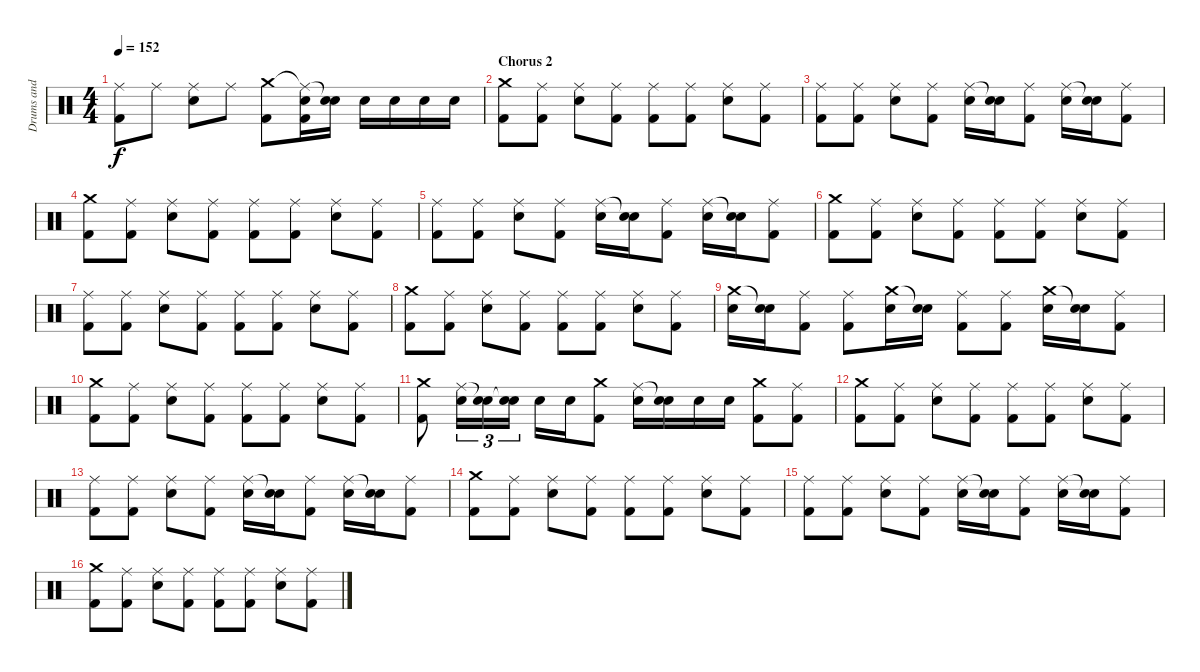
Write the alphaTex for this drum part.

\track ("Drums and Percussion" "Drums and ") {instrument percussion}
\staff {score}
\articulation defaults
\ts (4 4)
\tempo 152
\clef neutral
\ks c
("Ride (middle)" "Kick (hit) 2").8{dy f} "Ride (middle)".8 ("Ride (middle)" "Electric Snare (hit)").8 "Ride (middle)".8 ("Crash medium (hit)" "Kick (hit) 2").8 ("Ride (middle)"{t} "Electric Snare (hit)" "Kick (hit) 2").16 ("Snare (hit)"{t} "Electric Snare (hit)").16 "Electric Snare (hit)".16 "Electric Snare (hit)".16 "Electric Snare (hit)".16 "Electric Snare (hit)".16 |
\section ("" "Chorus 2")
("Crash medium (hit)" "Kick (hit) 2").8 ("Ride (middle)" "Kick (hit) 2").8 ("Ride (middle)" "Electric Snare (hit)").8 ("Ride (middle)" "Kick (hit) 2").8 ("Ride (middle)" "Kick (hit) 2").8 ("Ride (middle)" "Kick (hit) 2").8 ("Ride (middle)" "Electric Snare (hit)").8 ("Ride (middle)" "Kick (hit) 2").8 |
("Ride (middle)" "Kick (hit) 2").8 ("Ride (middle)" "Kick (hit) 2").8 ("Ride (middle)" "Electric Snare (hit)").8 ("Ride (middle)" "Kick (hit) 2").8 ("Ride (middle)" "Electric Snare (hit)").16 ("Snare (hit)"{t} "Electric Snare (hit)").16 ("Ride (middle)" "Kick (hit) 2").8 ("Ride (middle)" "Electric Snare (hit)").16 ("Snare (hit)"{t} "Electric Snare (hit)").16 ("Ride (middle)" "Kick (hit) 2").8 |
("Crash medium (hit)" "Kick (hit) 2").8 ("Ride (middle)" "Kick (hit) 2").8 ("Ride (middle)" "Electric Snare (hit)").8 ("Ride (middle)" "Kick (hit) 2").8 ("Ride (middle)" "Kick (hit) 2").8 ("Ride (middle)" "Kick (hit) 2").8 ("Ride (middle)" "Electric Snare (hit)").8 ("Ride (middle)" "Kick (hit) 2").8 |
("Ride (middle)" "Kick (hit) 2").8 ("Ride (middle)" "Kick (hit) 2").8 ("Ride (middle)" "Electric Snare (hit)").8 ("Ride (middle)" "Kick (hit) 2").8 ("Ride (middle)" "Electric Snare (hit)").16 ("Snare (hit)"{t} "Electric Snare (hit)").16 ("Ride (middle)" "Kick (hit) 2").8 ("Ride (middle)" "Electric Snare (hit)").16 ("Snare (hit)"{t} "Electric Snare (hit)").16 ("Ride (middle)" "Kick (hit) 2").8 |
("Crash medium (hit)" "Kick (hit) 2").8 ("Ride (middle)" "Kick (hit) 2").8 ("Ride (middle)" "Electric Snare (hit)").8 ("Ride (middle)" "Kick (hit) 2").8 ("Ride (middle)" "Kick (hit) 2").8 ("Ride (middle)" "Kick (hit) 2").8 ("Ride (middle)" "Electric Snare (hit)").8 ("Ride (middle)" "Kick (hit) 2").8 |
("Ride (middle)" "Kick (hit) 2").8 ("Ride (middle)" "Kick (hit) 2").8 ("Ride (middle)" "Electric Snare (hit)").8 ("Ride (middle)" "Kick (hit) 2").8 ("Ride (middle)" "Kick (hit) 2").8 ("Ride (middle)" "Kick (hit) 2").8 ("Ride (middle)" "Electric Snare (hit)").8 ("Ride (middle)" "Kick (hit) 2").8 |
("Crash medium (hit)" "Kick (hit) 2").8 ("Ride (middle)" "Kick (hit) 2").8 ("Ride (middle)" "Electric Snare (hit)").8 ("Ride (middle)" "Kick (hit) 2").8 ("Ride (middle)" "Kick (hit) 2").8 ("Ride (middle)" "Kick (hit) 2").8 ("Ride (middle)" "Electric Snare (hit)").8 ("Ride (middle)" "Kick (hit) 2").8 |
("Crash medium (hit)" "Electric Snare (hit)").16 ("Snare (hit)"{t} "Electric Snare (hit)").16 ("Ride (middle)" "Kick (hit) 2").8 ("Ride (middle)" "Kick (hit) 2").8 ("Crash medium (hit)" "Electric Snare (hit)").16 ("Snare (hit)"{t} "Electric Snare (hit)").16 ("Ride (middle)" "Kick (hit) 2").8 ("Ride (middle)" "Kick (hit) 2").8 ("Crash medium (hit)" "Electric Snare (hit)").16 ("Snare (hit)"{t} "Electric Snare (hit)").16 ("Ride (middle)" "Kick (hit) 2").8 |
("Crash medium (hit)" "Kick (hit) 2").8 ("Ride (middle)" "Kick (hit) 2").8 ("Ride (middle)" "Electric Snare (hit)").8 ("Ride (middle)" "Kick (hit) 2").8 ("Ride (middle)" "Kick (hit) 2").8 ("Ride (middle)" "Kick (hit) 2").8 ("Ride (middle)" "Electric Snare (hit)").8 ("Ride (middle)" "Kick (hit) 2").8 |
("Crash medium (hit)" "Kick (hit) 2").8 ("Ride (middle)" "Electric Snare (hit)").16{tu (3 2)} ("Snare (hit)"{t} "Electric Snare (hit)").16{tu (3 2)} ("Snare (hit)"{t} "Electric Snare (hit)").16{tu (3 2)} "Electric Snare (hit)".16 "Electric Snare (hit)".16 ("Crash medium (hit)" "Kick (hit) 2").8 ("Ride (middle)" "Electric Snare (hit)").16 ("Snare (hit)"{t} "Electric Snare (hit)").16 "Electric Snare (hit)".16 "Electric Snare (hit)".16 ("Crash medium (hit)" "Kick (hit) 2").8 ("Ride (middle)" "Kick (hit) 2").8 |
("Crash medium (hit)" "Kick (hit) 2").8 ("Ride (middle)" "Kick (hit) 2").8 ("Ride (middle)" "Electric Snare (hit)").8 ("Ride (middle)" "Kick (hit) 2").8 ("Ride (middle)" "Kick (hit) 2").8 ("Ride (middle)" "Kick (hit) 2").8 ("Ride (middle)" "Electric Snare (hit)").8 ("Ride (middle)" "Kick (hit) 2").8 |
("Ride (middle)" "Kick (hit) 2").8 ("Ride (middle)" "Kick (hit) 2").8 ("Ride (middle)" "Electric Snare (hit)").8 ("Ride (middle)" "Kick (hit) 2").8 ("Ride (middle)" "Electric Snare (hit)").16 ("Snare (hit)"{t} "Electric Snare (hit)").16 ("Ride (middle)" "Kick (hit) 2").8 ("Ride (middle)" "Electric Snare (hit)").16 ("Snare (hit)"{t} "Electric Snare (hit)").16 ("Ride (middle)" "Kick (hit) 2").8 |
("Crash medium (hit)" "Kick (hit) 2").8 ("Ride (middle)" "Kick (hit) 2").8 ("Ride (middle)" "Electric Snare (hit)").8 ("Ride (middle)" "Kick (hit) 2").8 ("Ride (middle)" "Kick (hit) 2").8 ("Ride (middle)" "Kick (hit) 2").8 ("Ride (middle)" "Electric Snare (hit)").8 ("Ride (middle)" "Kick (hit) 2").8 |
("Ride (middle)" "Kick (hit) 2").8 ("Ride (middle)" "Kick (hit) 2").8 ("Ride (middle)" "Electric Snare (hit)").8 ("Ride (middle)" "Kick (hit) 2").8 ("Ride (middle)" "Electric Snare (hit)").16 ("Snare (hit)"{t} "Electric Snare (hit)").16 ("Ride (middle)" "Kick (hit) 2").8 ("Ride (middle)" "Electric Snare (hit)").16 ("Snare (hit)"{t} "Electric Snare (hit)").16 ("Ride (middle)" "Kick (hit) 2").8 |
("Crash medium (hit)" "Kick (hit) 2").8 ("Ride (middle)" "Kick (hit) 2").8 ("Ride (middle)" "Electric Snare (hit)").8 ("Ride (middle)" "Kick (hit) 2").8 ("Ride (middle)" "Kick (hit) 2").8 ("Ride (middle)" "Kick (hit) 2").8 ("Ride (middle)" "Electric Snare (hit)").8 ("Ride (middle)" "Kick (hit) 2").8
